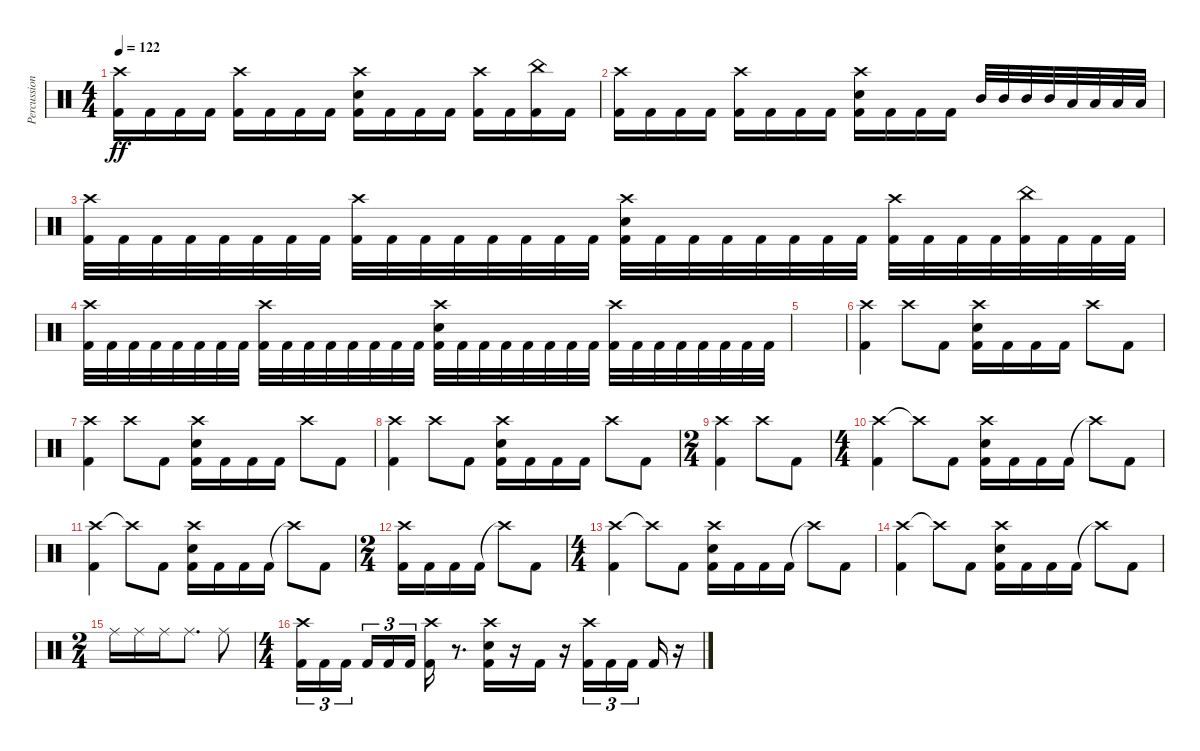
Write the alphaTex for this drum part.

\track ("Percussion" "Percussion") {instrument percussion}
\staff {score}
\articulation defaults
\ts (4 4)
\tempo 122
\clef neutral
\ks c
("Crash high (hit)" "Kick (hit) 2").16{dy ff} "Kick (hit) 2".16 "Kick (hit) 2".16 "Kick (hit) 2".16 ("Crash high (hit)" "Kick (hit) 2").16 "Kick (hit) 2".16 "Kick (hit) 2".16 "Kick (hit) 2".16 ("Crash high (hit)" "Electric Snare (hit)" "Kick (hit) 2").16 "Kick (hit) 2".16 "Kick (hit) 2".16 "Kick (hit) 2".16 ("Crash high (hit)" "Kick (hit) 2").16 "Kick (hit) 2".16 ("China (hit)" "Kick (hit) 2").16 "Kick (hit) 2".16 |
("Crash high (hit)" "Kick (hit) 2").16 "Kick (hit) 2".16 "Kick (hit) 2".16 "Kick (hit) 2".16 ("Crash high (hit)" "Kick (hit) 2").16 "Kick (hit) 2".16 "Kick (hit) 2".16 "Kick (hit) 2".16 ("Crash high (hit)" "Electric Snare (hit)" "Kick (hit) 2").16 "Kick (hit) 2".16 "Kick (hit) 2".16 "Kick (hit) 2".16 "Mid Tom (hit)".32 "Mid Tom (hit)".32 "Mid Tom (hit)".32 "Mid Tom (hit)".32 "Low Tom (hit)".32 "Low Tom (hit)".32 "Low Tom (hit)".32 "Low Tom (hit)".32 |
("Crash high (hit)" "Kick (hit) 2").32 "Kick (hit) 2".32 "Kick (hit) 2".32 "Kick (hit) 2".32 "Kick (hit) 2".32 "Kick (hit) 2".32 "Kick (hit) 2".32 "Kick (hit) 2".32 ("Crash high (hit)" "Kick (hit) 2").32 "Kick (hit) 2".32 "Kick (hit) 2".32 "Kick (hit) 2".32 "Kick (hit) 2".32 "Kick (hit) 2".32 "Kick (hit) 2".32 "Kick (hit) 2".32 ("Crash high (hit)" "Electric Snare (hit)" "Kick (hit) 2").32 "Kick (hit) 2".32 "Kick (hit) 2".32 "Kick (hit) 2".32 "Kick (hit) 2".32 "Kick (hit) 2".32 "Kick (hit) 2".32 "Kick (hit) 2".32 ("Crash high (hit)" "Kick (hit) 2").32 "Kick (hit) 2".32 "Kick (hit) 2".32 "Kick (hit) 2".32 ("China (hit)" "Kick (hit) 2").32 "Kick (hit) 2".32 "Kick (hit) 2".32 "Kick (hit) 2".32 |
("Crash high (hit)" "Kick (hit) 2").32 "Kick (hit) 2".32 "Kick (hit) 2".32 "Kick (hit) 2".32 "Kick (hit) 2".32 "Kick (hit) 2".32 "Kick (hit) 2".32 "Kick (hit) 2".32 ("Crash high (hit)" "Kick (hit) 2").32 "Kick (hit) 2".32 "Kick (hit) 2".32 "Kick (hit) 2".32 "Kick (hit) 2".32 "Kick (hit) 2".32 "Kick (hit) 2".32 "Kick (hit) 2".32 ("Crash high (hit)" "Electric Snare (hit)" "Kick (hit) 2").32 "Kick (hit) 2".32 "Kick (hit) 2".32 "Kick (hit) 2".32 "Kick (hit) 2".32 "Kick (hit) 2".32 "Kick (hit) 2".32 "Kick (hit) 2".32 ("Crash high (hit)" "Kick (hit) 2").32 "Kick (hit) 2".32 "Kick (hit) 2".32 "Kick (hit) 2".32 "Kick (hit) 2".32 "Kick (hit) 2".32 "Kick (hit) 2".32 "Kick (hit) 2".32 |
|
("Crash high (hit)" "Kick (hit) 2").4 "Crash high (hit)".8 "Kick (hit) 2".8 ("Crash high (hit)" "Electric Snare (hit)" "Kick (hit) 2").16 "Kick (hit) 2".16 "Kick (hit) 2".16 "Kick (hit) 2".16 "Crash high (hit)".8 "Kick (hit) 2".8 |
("Crash high (hit)" "Kick (hit) 2").4 "Crash high (hit)".8 "Kick (hit) 2".8 ("Crash high (hit)" "Electric Snare (hit)" "Kick (hit) 2").16 "Kick (hit) 2".16 "Kick (hit) 2".16 "Kick (hit) 2".16 "Crash high (hit)".8 "Kick (hit) 2".8 |
("Crash high (hit)" "Kick (hit) 2").4 "Crash high (hit)".8 "Kick (hit) 2".8 ("Crash high (hit)" "Electric Snare (hit)" "Kick (hit) 2").16 "Kick (hit) 2".16 "Kick (hit) 2".16 "Kick (hit) 2".16 "Crash high (hit)".8 "Kick (hit) 2".8 |
\ts (2 4)
("Crash high (hit)" "Kick (hit) 2").4 "Crash high (hit)".8 "Kick (hit) 2".8 |
\ts (4 4)
("Crash high (hit)" "Kick (hit) 2").4 "Crash high (hit)"{t}.8 "Kick (hit) 2".8 ("Crash high (hit)" "Electric Snare (hit)" "Kick (hit) 2").16 "Kick (hit) 2".16 "Kick (hit) 2".16 "Kick (hit) 2".16 "Crash high (hit)"{t}.8 "Kick (hit) 2".8 |
("Crash high (hit)" "Kick (hit) 2").4 "Crash high (hit)"{t}.8 "Kick (hit) 2".8 ("Crash high (hit)" "Electric Snare (hit)" "Kick (hit) 2").16 "Kick (hit) 2".16 "Kick (hit) 2".16 "Kick (hit) 2".16 "Crash high (hit)"{t}.8 "Kick (hit) 2".8 |
\ts (2 4)
("Crash high (hit)" "Kick (hit) 2").16 "Kick (hit) 2".16 "Kick (hit) 2".16 "Kick (hit) 2".16 "Crash high (hit)"{t}.8 "Kick (hit) 2".8 |
\ts (4 4)
("Crash high (hit)" "Kick (hit) 2").4 "Crash high (hit)"{t}.8 "Kick (hit) 2".8 ("Crash high (hit)" "Electric Snare (hit)" "Kick (hit) 2").16 "Kick (hit) 2".16 "Kick (hit) 2".16 "Kick (hit) 2".16 "Crash high (hit)"{t}.8 "Kick (hit) 2".8 |
("Crash high (hit)" "Kick (hit) 2").4 "Crash high (hit)"{t}.8 "Kick (hit) 2".8 ("Crash high (hit)" "Electric Snare (hit)" "Kick (hit) 2").16 "Kick (hit) 2".16 "Kick (hit) 2".16 "Kick (hit) 2".16 "Crash high (hit)"{t}.8 "Kick (hit) 2".8 |
\ts (2 4)
"Ride (middle)".16 "Ride (middle)".16 "Ride (middle)".16 "Ride (middle)".8{d} "Ride (middle)".8 |
\ts (4 4)
("Crash high (hit)" "Kick (hit) 2").16{tu (3 2)} "Kick (hit) 2".16{tu (3 2)} "Kick (hit) 2".16{tu (3 2) beam splitsecondary} "Kick (hit) 2".16{tu (3 2)} "Kick (hit) 2".16{tu (3 2)} "Kick (hit) 2".16{tu (3 2)} ("Crash high (hit)" "Kick (hit) 2").16 r.8{d} ("Crash high (hit)" "Electric Snare (hit)" "Kick (hit) 2").16 r.16 "Kick (hit) 2".16 r.16 ("Crash high (hit)" "Kick (hit) 2").16{tu (3 2)} "Kick (hit) 2".16{tu (3 2)} "Kick (hit) 2".16{tu (3 2) beam splitsecondary} "Kick (hit) 2".16 r.16
